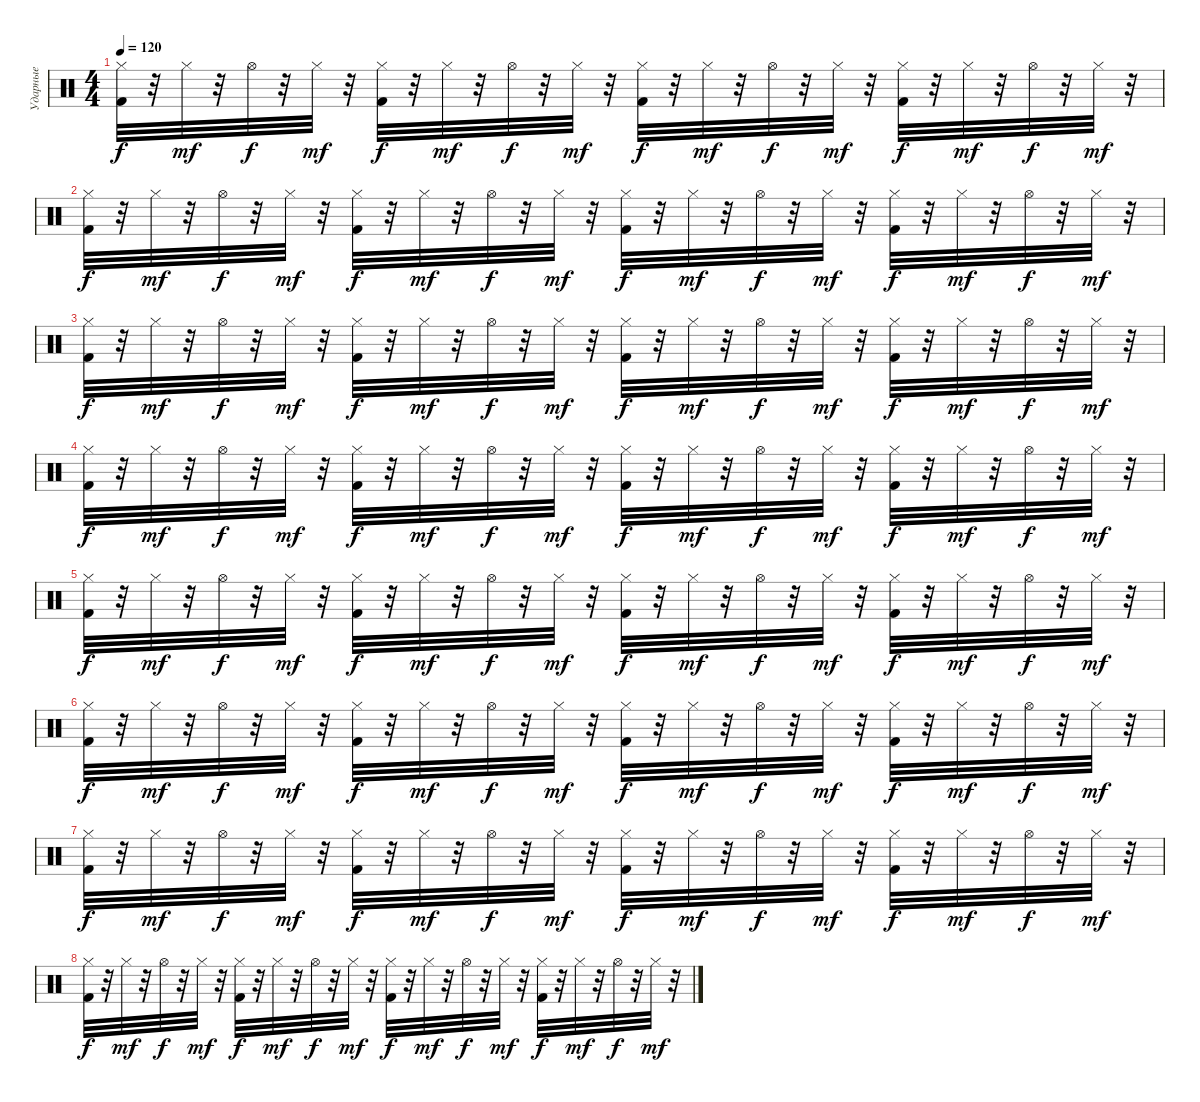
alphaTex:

\track ("Ударные" "Ударные") {instrument percussion}
\staff {score}
\articulation defaults
\ts (4 4)
\tempo 120
\clef neutral
\ks c
("Hi-Hat (closed)" "Kick (hit) 2").32{dy f volume 16} r.32 "Hi-Hat (closed)".32{dy mf volume 16} r.32 "Hi-Hat (open)".32{dy f} r.32 "Hi-Hat (closed)".32{dy mf volume 16} r.32 ("Hi-Hat (closed)" "Kick (hit) 2").32{dy f volume 16} r.32 "Hi-Hat (closed)".32{dy mf volume 15} r.32 "Hi-Hat (open)".32{dy f volume 15} r.32 "Hi-Hat (closed)".32{dy mf volume 15} r.32 ("Hi-Hat (closed)" "Kick (hit) 2").32{dy f volume 15} r.32 "Hi-Hat (closed)".32{dy mf volume 15} r.32 "Hi-Hat (open)".32{dy f volume 15} r.32 "Hi-Hat (closed)".32{dy mf volume 15} r.32 ("Hi-Hat (closed)" "Kick (hit) 2").32{dy f volume 14} r.32 "Hi-Hat (closed)".32{dy mf volume 14} r.32 "Hi-Hat (open)".32{dy f volume 14} r.32 "Hi-Hat (closed)".32{dy mf volume 14} r.32 |
("Hi-Hat (closed)" "Kick (hit) 2").32{dy f volume 14} r.32 "Hi-Hat (closed)".32{dy mf volume 14} r.32 "Hi-Hat (open)".32{dy f volume 14} r.32 "Hi-Hat (closed)".32{dy mf volume 14} r.32 ("Hi-Hat (closed)" "Kick (hit) 2").32{dy f volume 14} r.32 "Hi-Hat (closed)".32{dy mf volume 13} r.32 "Hi-Hat (open)".32{dy f volume 13} r.32 "Hi-Hat (closed)".32{dy mf volume 13} r.32 ("Hi-Hat (closed)" "Kick (hit) 2").32{dy f volume 13} r.32 "Hi-Hat (closed)".32{dy mf volume 13} r.32 "Hi-Hat (open)".32{dy f volume 13} r.32 "Hi-Hat (closed)".32{dy mf volume 13} r.32 ("Hi-Hat (closed)" "Kick (hit) 2").32{dy f volume 12} r.32 "Hi-Hat (closed)".32{dy mf volume 12} r.32 "Hi-Hat (open)".32{dy f volume 12} r.32 "Hi-Hat (closed)".32{dy mf volume 12} r.32 |
("Hi-Hat (closed)" "Kick (hit) 2").32{dy f volume 12} r.32 "Hi-Hat (closed)".32{dy mf volume 12} r.32 "Hi-Hat (open)".32{dy f volume 12} r.32 "Hi-Hat (closed)".32{dy mf volume 12} r.32 ("Hi-Hat (closed)" "Kick (hit) 2").32{dy f volume 12} r.32 "Hi-Hat (closed)".32{dy mf volume 11} r.32 "Hi-Hat (open)".32{dy f volume 11} r.32 "Hi-Hat (closed)".32{dy mf volume 11} r.32 ("Hi-Hat (closed)" "Kick (hit) 2").32{dy f volume 11} r.32 "Hi-Hat (closed)".32{dy mf volume 11} r.32 "Hi-Hat (open)".32{dy f volume 11} r.32 "Hi-Hat (closed)".32{dy mf volume 11} r.32 ("Hi-Hat (closed)" "Kick (hit) 2").32{dy f volume 10} r.32 "Hi-Hat (closed)".32{dy mf volume 10} r.32 "Hi-Hat (open)".32{dy f volume 10} r.32 "Hi-Hat (closed)".32{dy mf volume 10} r.32 |
("Hi-Hat (closed)" "Kick (hit) 2").32{dy f volume 10} r.32 "Hi-Hat (closed)".32{dy mf volume 10} r.32 "Hi-Hat (open)".32{dy f volume 10} r.32 "Hi-Hat (closed)".32{dy mf volume 10} r.32 ("Hi-Hat (closed)" "Kick (hit) 2").32{dy f volume 10} r.32 "Hi-Hat (closed)".32{dy mf volume 9} r.32 "Hi-Hat (open)".32{dy f volume 9} r.32 "Hi-Hat (closed)".32{dy mf volume 9} r.32 ("Hi-Hat (closed)" "Kick (hit) 2").32{dy f volume 9} r.32 "Hi-Hat (closed)".32{dy mf volume 9} r.32 "Hi-Hat (open)".32{dy f volume 9} r.32 "Hi-Hat (closed)".32{dy mf volume 9} r.32 ("Hi-Hat (closed)" "Kick (hit) 2").32{dy f volume 8} r.32 "Hi-Hat (closed)".32{dy mf volume 8} r.32 "Hi-Hat (open)".32{dy f volume 8} r.32 "Hi-Hat (closed)".32{dy mf volume 8} r.32 |
("Hi-Hat (closed)" "Kick (hit) 2").32{dy f volume 8} r.32 "Hi-Hat (closed)".32{dy mf volume 8} r.32 "Hi-Hat (open)".32{dy f volume 8} r.32 "Hi-Hat (closed)".32{dy mf volume 8} r.32 ("Hi-Hat (closed)" "Kick (hit) 2").32{dy f volume 8} r.32 "Hi-Hat (closed)".32{dy mf volume 7} r.32 "Hi-Hat (open)".32{dy f volume 7} r.32 "Hi-Hat (closed)".32{dy mf volume 7} r.32 ("Hi-Hat (closed)" "Kick (hit) 2").32{dy f volume 7} r.32 "Hi-Hat (closed)".32{dy mf volume 7} r.32 "Hi-Hat (open)".32{dy f volume 7} r.32 "Hi-Hat (closed)".32{dy mf volume 7} r.32 ("Hi-Hat (closed)" "Kick (hit) 2").32{dy f volume 6} r.32 "Hi-Hat (closed)".32{dy mf volume 6} r.32 "Hi-Hat (open)".32{dy f volume 6} r.32 "Hi-Hat (closed)".32{dy mf volume 6} r.32 |
("Hi-Hat (closed)" "Kick (hit) 2").32{dy f volume 6} r.32 "Hi-Hat (closed)".32{dy mf volume 6} r.32 "Hi-Hat (open)".32{dy f volume 6} r.32 "Hi-Hat (closed)".32{dy mf volume 6} r.32 ("Hi-Hat (closed)" "Kick (hit) 2").32{dy f volume 6} r.32 "Hi-Hat (closed)".32{dy mf volume 5} r.32 "Hi-Hat (open)".32{dy f volume 5} r.32 "Hi-Hat (closed)".32{dy mf volume 5} r.32 ("Hi-Hat (closed)" "Kick (hit) 2").32{dy f volume 5} r.32 "Hi-Hat (closed)".32{dy mf volume 5} r.32 "Hi-Hat (open)".32{dy f volume 5} r.32 "Hi-Hat (closed)".32{dy mf volume 5} r.32 ("Hi-Hat (closed)" "Kick (hit) 2").32{dy f volume 4} r.32 "Hi-Hat (closed)".32{dy mf volume 4} r.32 "Hi-Hat (open)".32{dy f volume 4} r.32 "Hi-Hat (closed)".32{dy mf volume 4} r.32 |
("Hi-Hat (closed)" "Kick (hit) 2").32{dy f volume 4} r.32 "Hi-Hat (closed)".32{dy mf volume 4} r.32 "Hi-Hat (open)".32{dy f volume 4} r.32 "Hi-Hat (closed)".32{dy mf volume 4} r.32 ("Hi-Hat (closed)" "Kick (hit) 2").32{dy f volume 4} r.32 "Hi-Hat (closed)".32{dy mf volume 3} r.32 "Hi-Hat (open)".32{dy f volume 3} r.32 "Hi-Hat (closed)".32{dy mf volume 3} r.32 ("Hi-Hat (closed)" "Kick (hit) 2").32{dy f volume 3} r.32 "Hi-Hat (closed)".32{dy mf volume 3} r.32 "Hi-Hat (open)".32{dy f volume 3} r.32 "Hi-Hat (closed)".32{dy mf volume 3} r.32 ("Hi-Hat (closed)" "Kick (hit) 2").32{dy f volume 2} r.32 "Hi-Hat (closed)".32{dy mf volume 2} r.32 "Hi-Hat (open)".32{dy f volume 2} r.32 "Hi-Hat (closed)".32{dy mf volume 2} r.32 |
("Hi-Hat (closed)" "Kick (hit) 2").32{dy f volume 2} r.32 "Hi-Hat (closed)".32{dy mf volume 2} r.32 "Hi-Hat (open)".32{dy f volume 2} r.32 "Hi-Hat (closed)".32{dy mf volume 2} r.32 ("Hi-Hat (closed)" "Kick (hit) 2").32{dy f volume 2} r.32 "Hi-Hat (closed)".32{dy mf volume 1} r.32 "Hi-Hat (open)".32{dy f volume 1} r.32 "Hi-Hat (closed)".32{dy mf volume 1} r.32 ("Hi-Hat (closed)" "Kick (hit) 2").32{dy f volume 1} r.32 "Hi-Hat (closed)".32{dy mf volume 1} r.32 "Hi-Hat (open)".32{dy f volume 1} r.32 "Hi-Hat (closed)".32{dy mf volume 1} r.32 ("Hi-Hat (closed)" "Kick (hit) 2").32{dy f volume 0} r.32 "Hi-Hat (closed)".32{dy mf volume 0} r.32 "Hi-Hat (open)".32{dy f volume 0} r.32 "Hi-Hat (closed)".32{dy mf volume 0} r.32
